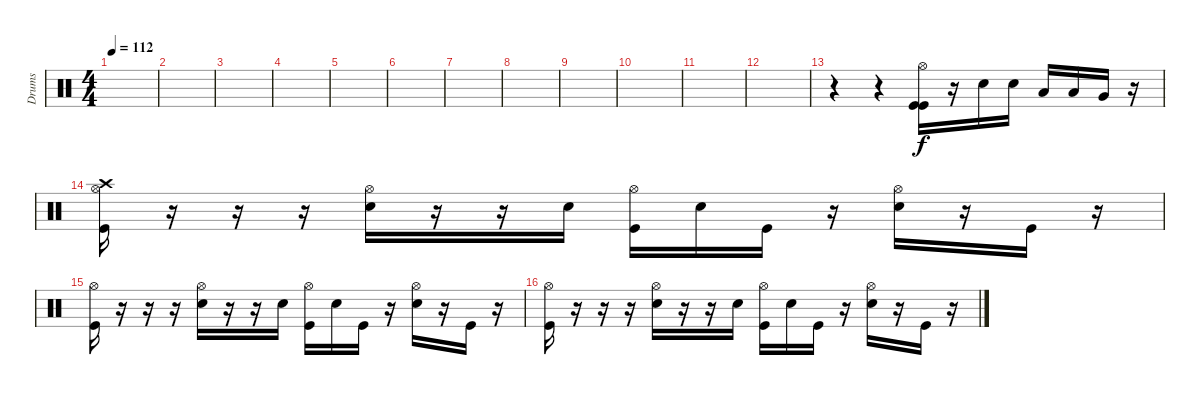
\track ("Drums" "Drums") {instrument percussion}
\staff {score}
\articulation defaults
\ts (4 4)
\tempo 112
\clef neutral
\ks c
|
|
|
|
|
|
|
|
|
|
|
|
r.4 r.4 ("Hi-Hat (open)" "Kick (hit)" "Kick (hit)").16 r.16 "Electric Snare (hit)".16 "Electric Snare (hit)".16 "Low Floor Tom (hit)".16 "Low Floor Tom (hit)".16 "Very Low Tom (hit)".16 r.16 |
("Hi-Hat (open)" "Kick (hit)" "Crash high (hit)").16 r.16 r.16 r.16 ("Hi-Hat (open)" "Electric Snare (hit)").16 r.16 r.16 "Electric Snare (hit)".16 ("Hi-Hat (open)" "Kick (hit)").16 "Electric Snare (hit)".16 "Kick (hit)".16 r.16 ("Hi-Hat (open)" "Electric Snare (hit)").16 r.16 "Kick (hit)".16 r.16 |
("Hi-Hat (open)" "Kick (hit)").16 r.16 r.16 r.16 ("Hi-Hat (open)" "Electric Snare (hit)").16 r.16 r.16 "Electric Snare (hit)".16 ("Hi-Hat (open)" "Kick (hit)").16 "Electric Snare (hit)".16 "Kick (hit)".16 r.16 ("Hi-Hat (open)" "Electric Snare (hit)").16 r.16 "Kick (hit)".16 r.16 |
("Hi-Hat (open)" "Kick (hit)").16 r.16 r.16 r.16 ("Hi-Hat (open)" "Electric Snare (hit)").16 r.16 r.16 "Electric Snare (hit)".16 ("Hi-Hat (open)" "Kick (hit)").16 "Electric Snare (hit)".16 "Kick (hit)".16 r.16 ("Hi-Hat (open)" "Electric Snare (hit)").16 r.16 "Kick (hit)".16 r.16
